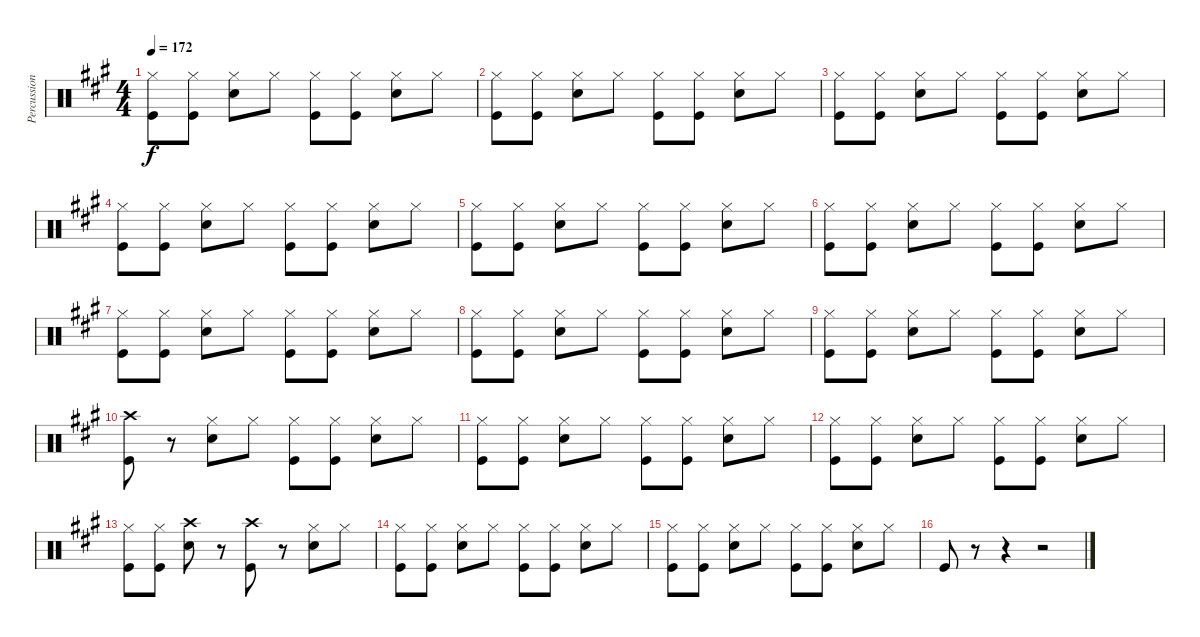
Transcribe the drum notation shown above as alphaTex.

\track ("Percussion" "Percussion") {instrument percussion}
\staff {score}
\articulation defaults
\ts (4 4)
\tempo 172
\clef neutral
\ks a
("Hi-Hat (closed)" "Kick (hit)").8{dy f} ("Hi-Hat (closed)" "Kick (hit)").8 ("Hi-Hat (closed)" "Snare (hit) 2").8 "Hi-Hat (closed)".8 ("Hi-Hat (closed)" "Kick (hit)").8 ("Hi-Hat (closed)" "Kick (hit)").8 ("Hi-Hat (closed)" "Snare (hit) 2").8 "Hi-Hat (closed)".8 |
("Hi-Hat (closed)" "Kick (hit)").8 ("Hi-Hat (closed)" "Kick (hit)").8 ("Hi-Hat (closed)" "Snare (hit) 2").8 "Hi-Hat (closed)".8 ("Hi-Hat (closed)" "Kick (hit)").8 ("Hi-Hat (closed)" "Kick (hit)").8 ("Hi-Hat (closed)" "Snare (hit) 2").8 "Hi-Hat (closed)".8 |
("Hi-Hat (closed)" "Kick (hit)").8 ("Hi-Hat (closed)" "Kick (hit)").8 ("Hi-Hat (closed)" "Snare (hit) 2").8 "Hi-Hat (closed)".8 ("Hi-Hat (closed)" "Kick (hit)").8 ("Hi-Hat (closed)" "Kick (hit)").8 ("Hi-Hat (closed)" "Snare (hit) 2").8 "Hi-Hat (closed)".8 |
("Hi-Hat (closed)" "Kick (hit)").8 ("Hi-Hat (closed)" "Kick (hit)").8 ("Hi-Hat (closed)" "Snare (hit) 2").8 "Hi-Hat (closed)".8 ("Hi-Hat (closed)" "Kick (hit)").8 ("Hi-Hat (closed)" "Kick (hit)").8 ("Hi-Hat (closed)" "Snare (hit) 2").8 "Hi-Hat (closed)".8 |
("Hi-Hat (closed)" "Kick (hit)").8 ("Hi-Hat (closed)" "Kick (hit)").8 ("Hi-Hat (closed)" "Snare (hit) 2").8 "Hi-Hat (closed)".8 ("Hi-Hat (closed)" "Kick (hit)").8 ("Hi-Hat (closed)" "Kick (hit)").8 ("Hi-Hat (closed)" "Snare (hit) 2").8 "Hi-Hat (closed)".8 |
("Hi-Hat (closed)" "Kick (hit)").8 ("Hi-Hat (closed)" "Kick (hit)").8 ("Hi-Hat (closed)" "Snare (hit) 2").8 "Hi-Hat (closed)".8 ("Hi-Hat (closed)" "Kick (hit)").8 ("Hi-Hat (closed)" "Kick (hit)").8 ("Hi-Hat (closed)" "Snare (hit) 2").8 "Hi-Hat (closed)".8 |
("Hi-Hat (closed)" "Kick (hit)").8 ("Hi-Hat (closed)" "Kick (hit)").8 ("Hi-Hat (closed)" "Snare (hit) 2").8 "Hi-Hat (closed)".8 ("Hi-Hat (closed)" "Kick (hit)").8 ("Hi-Hat (closed)" "Kick (hit)").8 ("Hi-Hat (closed)" "Snare (hit) 2").8 "Hi-Hat (closed)".8 |
("Hi-Hat (closed)" "Kick (hit)").8 ("Hi-Hat (closed)" "Kick (hit)").8 ("Hi-Hat (closed)" "Snare (hit) 2").8 "Hi-Hat (closed)".8 ("Hi-Hat (closed)" "Kick (hit)").8 ("Hi-Hat (closed)" "Kick (hit)").8 ("Hi-Hat (closed)" "Snare (hit) 2").8 "Hi-Hat (closed)".8 |
("Hi-Hat (closed)" "Kick (hit)").8 ("Hi-Hat (closed)" "Kick (hit)").8 ("Hi-Hat (closed)" "Snare (hit) 2").8 "Hi-Hat (closed)".8 ("Hi-Hat (closed)" "Kick (hit)").8 ("Hi-Hat (closed)" "Kick (hit)").8 ("Hi-Hat (closed)" "Snare (hit) 2").8 "Hi-Hat (closed)".8 |
("Crash high (hit)" "Kick (hit)").8 r.8 ("Hi-Hat (closed)" "Snare (hit) 2").8 "Hi-Hat (closed)".8 ("Hi-Hat (closed)" "Kick (hit)").8 ("Hi-Hat (closed)" "Kick (hit)").8 ("Hi-Hat (closed)" "Snare (hit) 2").8 "Hi-Hat (closed)".8 |
("Hi-Hat (closed)" "Kick (hit)").8 ("Hi-Hat (closed)" "Kick (hit)").8 ("Hi-Hat (closed)" "Snare (hit) 2").8 "Hi-Hat (closed)".8 ("Hi-Hat (closed)" "Kick (hit)").8 ("Hi-Hat (closed)" "Kick (hit)").8 ("Hi-Hat (closed)" "Snare (hit) 2").8 "Hi-Hat (closed)".8 |
("Hi-Hat (closed)" "Kick (hit)").8 ("Hi-Hat (closed)" "Kick (hit)").8 ("Hi-Hat (closed)" "Snare (hit) 2").8 "Hi-Hat (closed)".8 ("Hi-Hat (closed)" "Kick (hit)").8 ("Hi-Hat (closed)" "Kick (hit)").8 ("Hi-Hat (closed)" "Snare (hit) 2").8 "Hi-Hat (closed)".8 |
("Hi-Hat (closed)" "Kick (hit)").8 ("Hi-Hat (closed)" "Kick (hit)").8 ("Crash high (hit)" "Snare (hit) 2").8 r.8 ("Crash high (hit)" "Kick (hit)").8 r.8 ("Hi-Hat (closed)" "Snare (hit) 2").8 "Hi-Hat (closed)".8 |
("Hi-Hat (closed)" "Kick (hit)").8 ("Hi-Hat (closed)" "Kick (hit)").8 ("Hi-Hat (closed)" "Snare (hit) 2").8 "Hi-Hat (closed)".8 ("Hi-Hat (closed)" "Kick (hit)").8 ("Hi-Hat (closed)" "Kick (hit)").8 ("Hi-Hat (closed)" "Snare (hit) 2").8 "Hi-Hat (closed)".8 |
("Hi-Hat (closed)" "Kick (hit)").8 ("Hi-Hat (closed)" "Kick (hit)").8 ("Hi-Hat (closed)" "Snare (hit) 2").8 "Hi-Hat (closed)".8 ("Hi-Hat (closed)" "Kick (hit)").8 ("Hi-Hat (closed)" "Kick (hit)").8 ("Hi-Hat (closed)" "Snare (hit) 2").8 "Hi-Hat (closed)".8 |
"Kick (hit)".8 r.8 r.4 r.2
